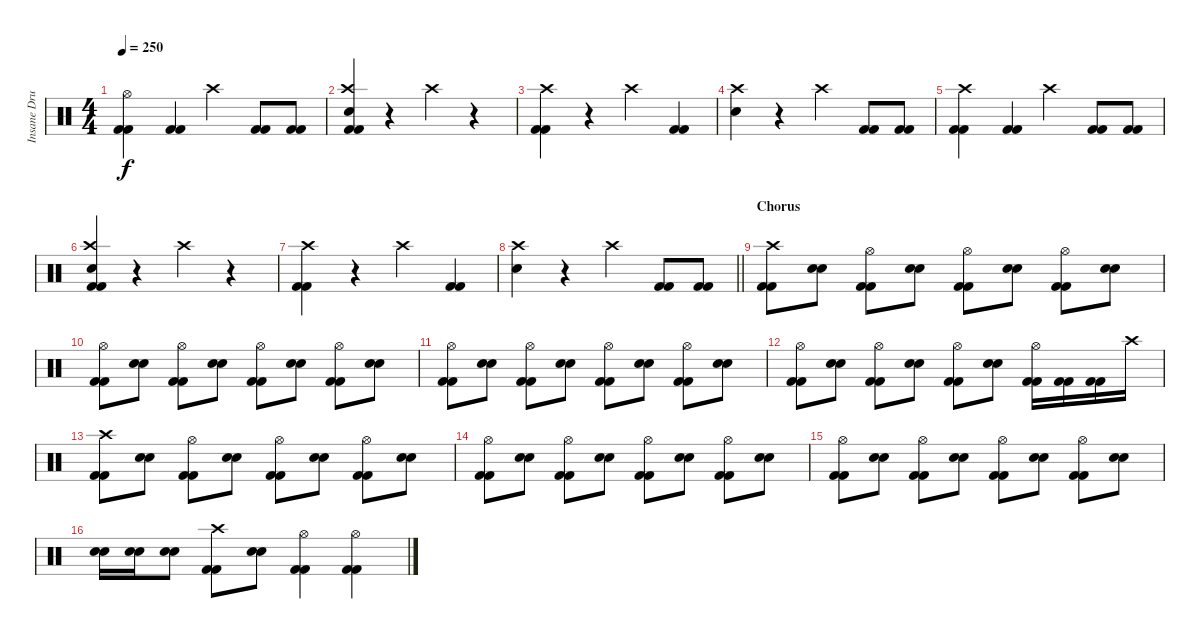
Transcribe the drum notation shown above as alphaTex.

\track ("Insane Drums" "Insane Dru") {instrument percussion}
\staff {score}
\articulation defaults
\ts (4 4)
\tempo 250
\clef neutral
\ks c
("Kick (hit) 2" "Kick (hit) 2" "Hi-Hat (open)").4{dy f} ("Kick (hit) 2" "Kick (hit) 2").4 "Crash high (hit)".4 ("Kick (hit) 2" "Kick (hit) 2").8 ("Kick (hit) 2" "Kick (hit) 2").8 |
("Kick (hit) 2" "Kick (hit) 2" "Electric Snare (hit)" "Crash high (hit)").4 r.4 "Crash high (hit)".4 r.4 |
("Kick (hit) 2" "Kick (hit) 2" "Crash high (hit)").4 r.4 "Crash high (hit)".4 ("Kick (hit) 2" "Kick (hit) 2").4 |
("Electric Snare (hit)" "Crash high (hit)").4 r.4 "Crash high (hit)".4 ("Kick (hit) 2" "Kick (hit) 2").8 ("Kick (hit) 2" "Kick (hit) 2").8 |
("Kick (hit) 2" "Kick (hit) 2" "Crash high (hit)").4 ("Kick (hit) 2" "Kick (hit) 2").4 "Crash high (hit)".4 ("Kick (hit) 2" "Kick (hit) 2").8 ("Kick (hit) 2" "Kick (hit) 2").8 |
("Kick (hit) 2" "Kick (hit) 2" "Electric Snare (hit)" "Crash high (hit)").4 r.4 "Crash high (hit)".4 r.4 |
("Kick (hit) 2" "Kick (hit) 2" "Crash high (hit)").4 r.4 "Crash high (hit)".4 ("Kick (hit) 2" "Kick (hit) 2").4 |
\barLineRight lightlight
("Electric Snare (hit)" "Crash high (hit)").4 r.4 "Crash high (hit)".4 ("Kick (hit) 2" "Kick (hit) 2").8 ("Kick (hit) 2" "Kick (hit) 2").8 |
\section ("" "Chorus")
("Kick (hit) 2" "Kick (hit) 2" "Crash high (hit)").8 ("Electric Snare (hit)" "Electric Snare (hit)").8 ("Kick (hit) 2" "Kick (hit) 2" "Hi-Hat (open)").8 ("Electric Snare (hit)" "Electric Snare (hit)").8 ("Kick (hit) 2" "Kick (hit) 2" "Hi-Hat (open)").8 ("Electric Snare (hit)" "Electric Snare (hit)").8 ("Kick (hit) 2" "Kick (hit) 2" "Hi-Hat (open)").8 ("Electric Snare (hit)" "Electric Snare (hit)").8 |
("Kick (hit) 2" "Kick (hit) 2" "Hi-Hat (open)").8 ("Electric Snare (hit)" "Electric Snare (hit)").8 ("Kick (hit) 2" "Kick (hit) 2" "Hi-Hat (open)").8 ("Electric Snare (hit)" "Electric Snare (hit)").8 ("Kick (hit) 2" "Kick (hit) 2" "Hi-Hat (open)").8 ("Electric Snare (hit)" "Electric Snare (hit)").8 ("Kick (hit) 2" "Kick (hit) 2" "Hi-Hat (open)").8 ("Electric Snare (hit)" "Electric Snare (hit)").8 |
("Kick (hit) 2" "Kick (hit) 2" "Hi-Hat (open)").8 ("Electric Snare (hit)" "Electric Snare (hit)").8 ("Kick (hit) 2" "Kick (hit) 2" "Hi-Hat (open)").8 ("Electric Snare (hit)" "Electric Snare (hit)").8 ("Kick (hit) 2" "Kick (hit) 2" "Hi-Hat (open)").8 ("Electric Snare (hit)" "Electric Snare (hit)").8 ("Kick (hit) 2" "Kick (hit) 2" "Hi-Hat (open)").8 ("Electric Snare (hit)" "Electric Snare (hit)").8 |
("Kick (hit) 2" "Kick (hit) 2" "Hi-Hat (open)").8 ("Electric Snare (hit)" "Electric Snare (hit)").8 ("Kick (hit) 2" "Kick (hit) 2" "Hi-Hat (open)").8 ("Electric Snare (hit)" "Electric Snare (hit)").8 ("Kick (hit) 2" "Kick (hit) 2" "Hi-Hat (open)").8 ("Electric Snare (hit)" "Electric Snare (hit)").8 ("Kick (hit) 2" "Kick (hit) 2" "Hi-Hat (open)").16 ("Kick (hit) 2" "Kick (hit) 2").16 ("Kick (hit) 2" "Kick (hit) 2").16 "Crash high (hit)".16 |
("Kick (hit) 2" "Kick (hit) 2" "Crash high (hit)").8 ("Electric Snare (hit)" "Electric Snare (hit)").8 ("Kick (hit) 2" "Kick (hit) 2" "Hi-Hat (open)").8 ("Electric Snare (hit)" "Electric Snare (hit)").8 ("Kick (hit) 2" "Kick (hit) 2" "Hi-Hat (open)").8 ("Electric Snare (hit)" "Electric Snare (hit)").8 ("Kick (hit) 2" "Kick (hit) 2" "Hi-Hat (open)").8 ("Electric Snare (hit)" "Electric Snare (hit)").8 |
("Kick (hit) 2" "Kick (hit) 2" "Hi-Hat (open)").8 ("Electric Snare (hit)" "Electric Snare (hit)").8 ("Kick (hit) 2" "Kick (hit) 2" "Hi-Hat (open)").8 ("Electric Snare (hit)" "Electric Snare (hit)").8 ("Kick (hit) 2" "Kick (hit) 2" "Hi-Hat (open)").8 ("Electric Snare (hit)" "Electric Snare (hit)").8 ("Kick (hit) 2" "Kick (hit) 2" "Hi-Hat (open)").8 ("Electric Snare (hit)" "Electric Snare (hit)").8 |
("Kick (hit) 2" "Kick (hit) 2" "Hi-Hat (open)").8 ("Electric Snare (hit)" "Electric Snare (hit)").8 ("Kick (hit) 2" "Kick (hit) 2" "Hi-Hat (open)").8 ("Electric Snare (hit)" "Electric Snare (hit)").8 ("Kick (hit) 2" "Kick (hit) 2" "Hi-Hat (open)").8 ("Electric Snare (hit)" "Electric Snare (hit)").8 ("Kick (hit) 2" "Kick (hit) 2" "Hi-Hat (open)").8 ("Electric Snare (hit)" "Electric Snare (hit)").8 |
("Electric Snare (hit)" "Electric Snare (hit)").16 ("Electric Snare (hit)" "Electric Snare (hit)").16 ("Electric Snare (hit)" "Electric Snare (hit)").8 ("Kick (hit) 2" "Kick (hit) 2" "Crash high (hit)").8 ("Electric Snare (hit)" "Electric Snare (hit)").8 ("Kick (hit) 2" "Kick (hit) 2" "Hi-Hat (open)").4 ("Kick (hit) 2" "Kick (hit) 2" "Hi-Hat (open)").4
